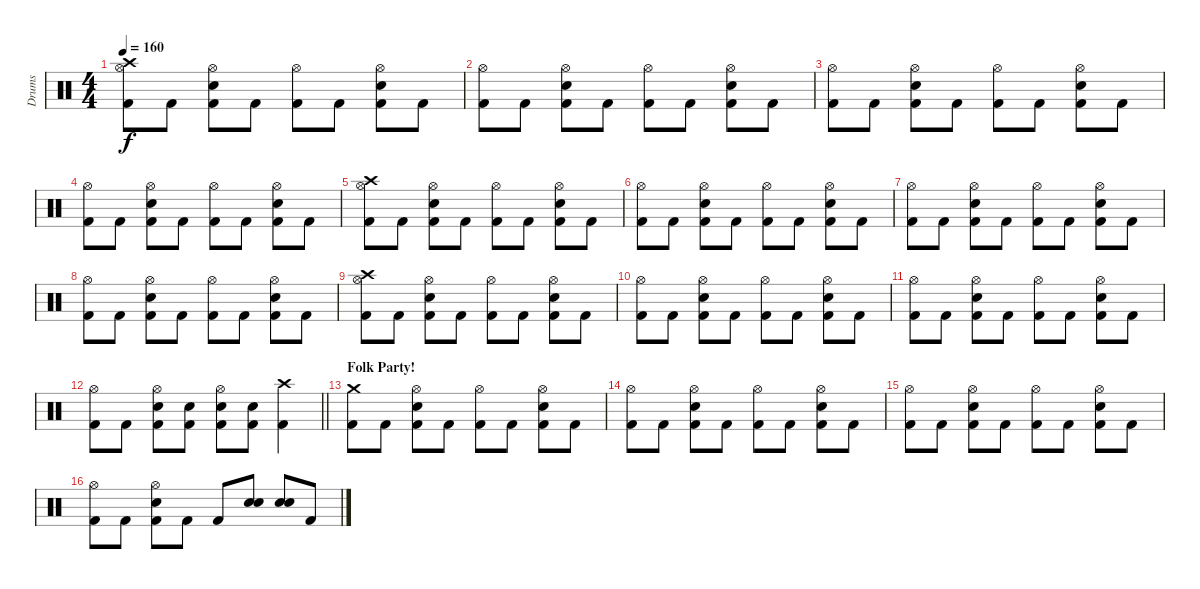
\track ("Drums" "Drums") {instrument percussion}
\staff {score}
\articulation defaults
\ts (4 4)
\tempo 160
\clef neutral
\ks c
("Crash high (hit)" "Hi-Hat (open)" "Kick (hit) 2").8{dy f} "Kick (hit) 2".8 ("Hi-Hat (open)" "Snare (hit) 2" "Kick (hit) 2").8 "Kick (hit) 2".8 ("Hi-Hat (open)" "Kick (hit) 2").8 "Kick (hit) 2".8 ("Hi-Hat (open)" "Snare (hit) 2" "Kick (hit) 2").8 "Kick (hit) 2".8 |
("Hi-Hat (open)" "Kick (hit) 2").8 "Kick (hit) 2".8 ("Hi-Hat (open)" "Snare (hit) 2" "Kick (hit) 2").8 "Kick (hit) 2".8 ("Hi-Hat (open)" "Kick (hit) 2").8 "Kick (hit) 2".8 ("Hi-Hat (open)" "Snare (hit) 2" "Kick (hit) 2").8 "Kick (hit) 2".8 |
("Hi-Hat (open)" "Kick (hit) 2").8 "Kick (hit) 2".8 ("Hi-Hat (open)" "Snare (hit) 2" "Kick (hit) 2").8 "Kick (hit) 2".8 ("Hi-Hat (open)" "Kick (hit) 2").8 "Kick (hit) 2".8 ("Hi-Hat (open)" "Snare (hit) 2" "Kick (hit) 2").8 "Kick (hit) 2".8 |
("Hi-Hat (open)" "Kick (hit) 2").8 "Kick (hit) 2".8 ("Hi-Hat (open)" "Snare (hit) 2" "Kick (hit) 2").8 "Kick (hit) 2".8 ("Hi-Hat (open)" "Kick (hit) 2").8 "Kick (hit) 2".8 ("Hi-Hat (open)" "Snare (hit) 2" "Kick (hit) 2").8 "Kick (hit) 2".8 |
("Crash high (hit)" "Hi-Hat (open)" "Kick (hit) 2").8 "Kick (hit) 2".8 ("Hi-Hat (open)" "Snare (hit) 2" "Kick (hit) 2").8 "Kick (hit) 2".8 ("Hi-Hat (open)" "Kick (hit) 2").8 "Kick (hit) 2".8 ("Hi-Hat (open)" "Snare (hit) 2" "Kick (hit) 2").8 "Kick (hit) 2".8 |
("Hi-Hat (open)" "Kick (hit) 2").8 "Kick (hit) 2".8 ("Hi-Hat (open)" "Snare (hit) 2" "Kick (hit) 2").8 "Kick (hit) 2".8 ("Hi-Hat (open)" "Kick (hit) 2").8 "Kick (hit) 2".8 ("Hi-Hat (open)" "Snare (hit) 2" "Kick (hit) 2").8 "Kick (hit) 2".8 |
("Hi-Hat (open)" "Kick (hit) 2").8 "Kick (hit) 2".8 ("Hi-Hat (open)" "Snare (hit) 2" "Kick (hit) 2").8 "Kick (hit) 2".8 ("Hi-Hat (open)" "Kick (hit) 2").8 "Kick (hit) 2".8 ("Hi-Hat (open)" "Snare (hit) 2" "Kick (hit) 2").8 "Kick (hit) 2".8 |
("Hi-Hat (open)" "Kick (hit) 2").8 "Kick (hit) 2".8 ("Hi-Hat (open)" "Snare (hit) 2" "Kick (hit) 2").8 "Kick (hit) 2".8 ("Hi-Hat (open)" "Kick (hit) 2").8 "Kick (hit) 2".8 ("Hi-Hat (open)" "Snare (hit) 2" "Kick (hit) 2").8 "Kick (hit) 2".8 |
("Crash high (hit)" "Hi-Hat (open)" "Kick (hit) 2").8 "Kick (hit) 2".8 ("Hi-Hat (open)" "Snare (hit) 2" "Kick (hit) 2").8 "Kick (hit) 2".8 ("Hi-Hat (open)" "Kick (hit) 2").8 "Kick (hit) 2".8 ("Hi-Hat (open)" "Snare (hit) 2" "Kick (hit) 2").8 "Kick (hit) 2".8 |
("Hi-Hat (open)" "Kick (hit) 2").8 "Kick (hit) 2".8 ("Hi-Hat (open)" "Snare (hit) 2" "Kick (hit) 2").8 "Kick (hit) 2".8 ("Hi-Hat (open)" "Kick (hit) 2").8 "Kick (hit) 2".8 ("Hi-Hat (open)" "Snare (hit) 2" "Kick (hit) 2").8 "Kick (hit) 2".8 |
("Hi-Hat (open)" "Kick (hit) 2").8 "Kick (hit) 2".8 ("Hi-Hat (open)" "Snare (hit) 2" "Kick (hit) 2").8 "Kick (hit) 2".8 ("Hi-Hat (open)" "Kick (hit) 2").8 "Kick (hit) 2".8 ("Hi-Hat (open)" "Snare (hit) 2" "Kick (hit) 2").8 "Kick (hit) 2".8 |
\barLineRight lightlight
("Hi-Hat (open)" "Kick (hit) 2").8 "Kick (hit) 2".8 ("Hi-Hat (open)" "Snare (hit) 2" "Kick (hit) 2").8 ("Snare (hit) 2" "Kick (hit) 2").8 ("Hi-Hat (open)" "Snare (hit) 2" "Kick (hit) 2").8 ("Snare (hit) 2" "Kick (hit) 2").8 ("Crash high (hit)" "Kick (hit) 2").4 |
\section ("" "Folk Party!")
("Crash medium (hit)" "Kick (hit) 2").8 "Kick (hit) 2".8 ("Hi-Hat (open)" "Snare (hit) 2" "Kick (hit) 2").8 "Kick (hit) 2".8 ("Hi-Hat (open)" "Kick (hit) 2").8 "Kick (hit) 2".8 ("Hi-Hat (open)" "Snare (hit) 2" "Kick (hit) 2").8 "Kick (hit) 2".8 |
("Hi-Hat (open)" "Kick (hit) 2").8 "Kick (hit) 2".8 ("Hi-Hat (open)" "Snare (hit) 2" "Kick (hit) 2").8 "Kick (hit) 2".8 ("Hi-Hat (open)" "Kick (hit) 2").8 "Kick (hit) 2".8 ("Hi-Hat (open)" "Snare (hit) 2" "Kick (hit) 2").8 "Kick (hit) 2".8 |
("Hi-Hat (open)" "Kick (hit) 2").8 "Kick (hit) 2".8 ("Hi-Hat (open)" "Snare (hit) 2" "Kick (hit) 2").8 "Kick (hit) 2".8 ("Hi-Hat (open)" "Kick (hit) 2").8 "Kick (hit) 2".8 ("Hi-Hat (open)" "Snare (hit) 2" "Kick (hit) 2").8 "Kick (hit) 2".8 |
("Hi-Hat (open)" "Kick (hit) 2").8 "Kick (hit) 2".8 ("Hi-Hat (open)" "Snare (hit) 2" "Kick (hit) 2").8 "Kick (hit) 2".8 "Kick (hit) 2".8 ("Hand Clap (hit)" "Snare (hit) 2").8 ("Hand Clap (hit)" "Snare (hit) 2").8 "Kick (hit) 2".8
